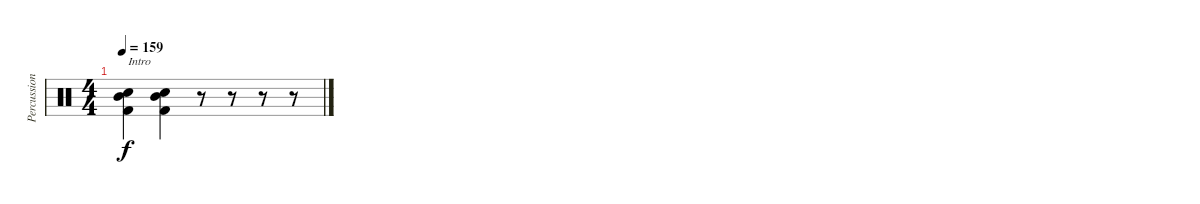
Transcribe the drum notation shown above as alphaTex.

\track ("Percussion" "Percussion") {instrument percussion}
\staff {score}
\articulation defaults
\ts (4 4)
\tempo 159
\clef neutral
\ks c
("Mid Tom (hit)" "Kick (hit) 2" "Electric Snare (hit)").4{txt "Intro " dy f} ("Mid Tom (hit)" "Kick (hit) 2" "Electric Snare (hit)").4 r.8 r.8 r.8 r.8
